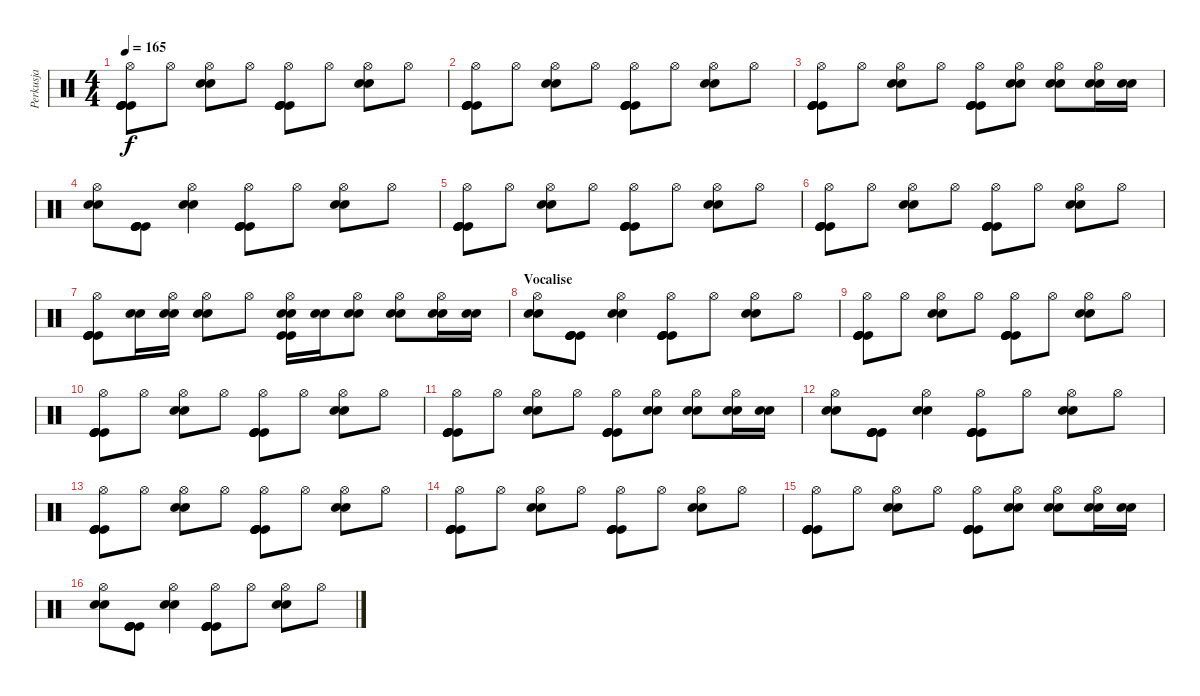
\track ("Perkusja" "Perkusja") {instrument percussion}
\staff {score}
\articulation defaults
\ts (4 4)
\tempo 165
\clef neutral
\ks c
("Hi-Hat (open)" "Kick (hit)" "Kick (hit)" "Kick (hit)" "Kick (hit)").8{dy f} "Hi-Hat (open)".8 ("Hi-Hat (open)" "Snare (hit) 2" "Snare (hit) 2").8 "Hi-Hat (open)".8 ("Hi-Hat (open)" "Kick (hit)" "Kick (hit)" "Kick (hit)" "Kick (hit)").8 "Hi-Hat (open)".8 ("Hi-Hat (open)" "Snare (hit) 2" "Snare (hit) 2").8 "Hi-Hat (open)".8 |
("Hi-Hat (open)" "Kick (hit)" "Kick (hit)" "Kick (hit)" "Kick (hit)").8 "Hi-Hat (open)".8 ("Hi-Hat (open)" "Snare (hit) 2" "Snare (hit) 2").8 "Hi-Hat (open)".8 ("Hi-Hat (open)" "Kick (hit)" "Kick (hit)" "Kick (hit)" "Kick (hit)").8 "Hi-Hat (open)".8 ("Hi-Hat (open)" "Snare (hit) 2" "Snare (hit) 2").8 "Hi-Hat (open)".8 |
("Hi-Hat (open)" "Kick (hit)" "Kick (hit)" "Kick (hit)" "Kick (hit)").8 "Hi-Hat (open)".8 ("Hi-Hat (open)" "Snare (hit) 2" "Snare (hit) 2").8 "Hi-Hat (open)".8 ("Hi-Hat (open)" "Kick (hit)" "Kick (hit)" "Kick (hit)" "Kick (hit)").8 ("Hi-Hat (open)" "Snare (hit) 2" "Snare (hit) 2").8 ("Hi-Hat (open)" "Snare (hit) 2" "Snare (hit) 2").8 ("Hi-Hat (open)" "Snare (hit) 2" "Snare (hit) 2").16 ("Snare (hit) 2" "Snare (hit) 2").16 |
("Hi-Hat (open)" "Snare (hit) 2" "Snare (hit) 2").8 ("Kick (hit)" "Kick (hit)" "Kick (hit)" "Kick (hit)").8 ("Hi-Hat (open)" "Snare (hit) 2" "Snare (hit) 2").4 ("Hi-Hat (open)" "Kick (hit)" "Kick (hit)" "Kick (hit)" "Kick (hit)").8 "Hi-Hat (open)".8 ("Hi-Hat (open)" "Snare (hit) 2" "Snare (hit) 2").8 "Hi-Hat (open)".8 |
("Hi-Hat (open)" "Kick (hit)" "Kick (hit)" "Kick (hit)" "Kick (hit)").8 "Hi-Hat (open)".8 ("Hi-Hat (open)" "Snare (hit) 2" "Snare (hit) 2").8 "Hi-Hat (open)".8 ("Hi-Hat (open)" "Kick (hit)" "Kick (hit)" "Kick (hit)" "Kick (hit)").8 "Hi-Hat (open)".8 ("Hi-Hat (open)" "Snare (hit) 2" "Snare (hit) 2").8 "Hi-Hat (open)".8 |
("Hi-Hat (open)" "Kick (hit)" "Kick (hit)" "Kick (hit)" "Kick (hit)").8 "Hi-Hat (open)".8 ("Hi-Hat (open)" "Snare (hit) 2" "Snare (hit) 2").8 "Hi-Hat (open)".8 ("Hi-Hat (open)" "Kick (hit)" "Kick (hit)" "Kick (hit)" "Kick (hit)").8 "Hi-Hat (open)".8 ("Hi-Hat (open)" "Snare (hit) 2" "Snare (hit) 2").8 "Hi-Hat (open)".8 |
("Hi-Hat (open)" "Kick (hit)" "Kick (hit)" "Kick (hit)" "Kick (hit)").8 ("Snare (hit) 2" "Snare (hit) 2").16 ("Hi-Hat (open)" "Snare (hit) 2" "Snare (hit) 2").16 ("Hi-Hat (open)" "Snare (hit) 2" "Snare (hit) 2").8 "Hi-Hat (open)".8 ("Hi-Hat (open)" "Kick (hit)" "Kick (hit)" "Snare (hit) 2" "Snare (hit) 2").16 ("Snare (hit) 2" "Snare (hit) 2").16 ("Hi-Hat (open)" "Snare (hit) 2" "Snare (hit) 2").8 ("Hi-Hat (open)" "Snare (hit) 2" "Snare (hit) 2").8 ("Hi-Hat (open)" "Snare (hit) 2" "Snare (hit) 2").16 ("Snare (hit) 2" "Snare (hit) 2").16 |
\section ("" "Vocalise")
("Hi-Hat (open)" "Snare (hit) 2" "Snare (hit) 2").8 ("Kick (hit)" "Kick (hit)" "Kick (hit)" "Kick (hit)").8 ("Hi-Hat (open)" "Snare (hit) 2" "Snare (hit) 2").4 ("Hi-Hat (open)" "Kick (hit)" "Kick (hit)" "Kick (hit)" "Kick (hit)").8 "Hi-Hat (open)".8 ("Hi-Hat (open)" "Snare (hit) 2" "Snare (hit) 2").8 "Hi-Hat (open)".8 |
("Hi-Hat (open)" "Kick (hit)" "Kick (hit)" "Kick (hit)" "Kick (hit)").8 "Hi-Hat (open)".8 ("Hi-Hat (open)" "Snare (hit) 2" "Snare (hit) 2").8 "Hi-Hat (open)".8 ("Hi-Hat (open)" "Kick (hit)" "Kick (hit)" "Kick (hit)" "Kick (hit)").8 "Hi-Hat (open)".8 ("Hi-Hat (open)" "Snare (hit) 2" "Snare (hit) 2").8 "Hi-Hat (open)".8 |
("Hi-Hat (open)" "Kick (hit)" "Kick (hit)" "Kick (hit)" "Kick (hit)").8 "Hi-Hat (open)".8 ("Hi-Hat (open)" "Snare (hit) 2" "Snare (hit) 2").8 "Hi-Hat (open)".8 ("Hi-Hat (open)" "Kick (hit)" "Kick (hit)" "Kick (hit)" "Kick (hit)").8 "Hi-Hat (open)".8 ("Hi-Hat (open)" "Snare (hit) 2" "Snare (hit) 2").8 "Hi-Hat (open)".8 |
("Hi-Hat (open)" "Kick (hit)" "Kick (hit)" "Kick (hit)" "Kick (hit)").8 "Hi-Hat (open)".8 ("Hi-Hat (open)" "Snare (hit) 2" "Snare (hit) 2").8 "Hi-Hat (open)".8 ("Hi-Hat (open)" "Kick (hit)" "Kick (hit)" "Kick (hit)" "Kick (hit)").8 ("Hi-Hat (open)" "Snare (hit) 2" "Snare (hit) 2").8 ("Hi-Hat (open)" "Snare (hit) 2" "Snare (hit) 2").8 ("Hi-Hat (open)" "Snare (hit) 2" "Snare (hit) 2").16 ("Snare (hit) 2" "Snare (hit) 2").16 |
("Hi-Hat (open)" "Snare (hit) 2" "Snare (hit) 2").8 ("Kick (hit)" "Kick (hit)" "Kick (hit)" "Kick (hit)").8 ("Hi-Hat (open)" "Snare (hit) 2" "Snare (hit) 2").4 ("Hi-Hat (open)" "Kick (hit)" "Kick (hit)" "Kick (hit)" "Kick (hit)").8 "Hi-Hat (open)".8 ("Hi-Hat (open)" "Snare (hit) 2" "Snare (hit) 2").8 "Hi-Hat (open)".8 |
("Hi-Hat (open)" "Kick (hit)" "Kick (hit)" "Kick (hit)" "Kick (hit)").8 "Hi-Hat (open)".8 ("Hi-Hat (open)" "Snare (hit) 2" "Snare (hit) 2").8 "Hi-Hat (open)".8 ("Hi-Hat (open)" "Kick (hit)" "Kick (hit)" "Kick (hit)" "Kick (hit)").8 "Hi-Hat (open)".8 ("Hi-Hat (open)" "Snare (hit) 2" "Snare (hit) 2").8 "Hi-Hat (open)".8 |
("Hi-Hat (open)" "Kick (hit)" "Kick (hit)" "Kick (hit)" "Kick (hit)").8 "Hi-Hat (open)".8 ("Hi-Hat (open)" "Snare (hit) 2" "Snare (hit) 2").8 "Hi-Hat (open)".8 ("Hi-Hat (open)" "Kick (hit)" "Kick (hit)" "Kick (hit)" "Kick (hit)").8 "Hi-Hat (open)".8 ("Hi-Hat (open)" "Snare (hit) 2" "Snare (hit) 2").8 "Hi-Hat (open)".8 |
("Hi-Hat (open)" "Kick (hit)" "Kick (hit)" "Kick (hit)" "Kick (hit)").8 "Hi-Hat (open)".8 ("Hi-Hat (open)" "Snare (hit) 2" "Snare (hit) 2").8 "Hi-Hat (open)".8 ("Hi-Hat (open)" "Kick (hit)" "Kick (hit)" "Kick (hit)" "Kick (hit)").8 ("Hi-Hat (open)" "Snare (hit) 2" "Snare (hit) 2").8 ("Hi-Hat (open)" "Snare (hit) 2" "Snare (hit) 2").8 ("Hi-Hat (open)" "Snare (hit) 2" "Snare (hit) 2").16 ("Snare (hit) 2" "Snare (hit) 2").16 |
("Hi-Hat (open)" "Snare (hit) 2" "Snare (hit) 2").8 ("Kick (hit)" "Kick (hit)" "Kick (hit)" "Kick (hit)").8 ("Hi-Hat (open)" "Snare (hit) 2" "Snare (hit) 2").4 ("Hi-Hat (open)" "Kick (hit)" "Kick (hit)" "Kick (hit)" "Kick (hit)").8 "Hi-Hat (open)".8 ("Hi-Hat (open)" "Snare (hit) 2" "Snare (hit) 2").8 "Hi-Hat (open)".8
